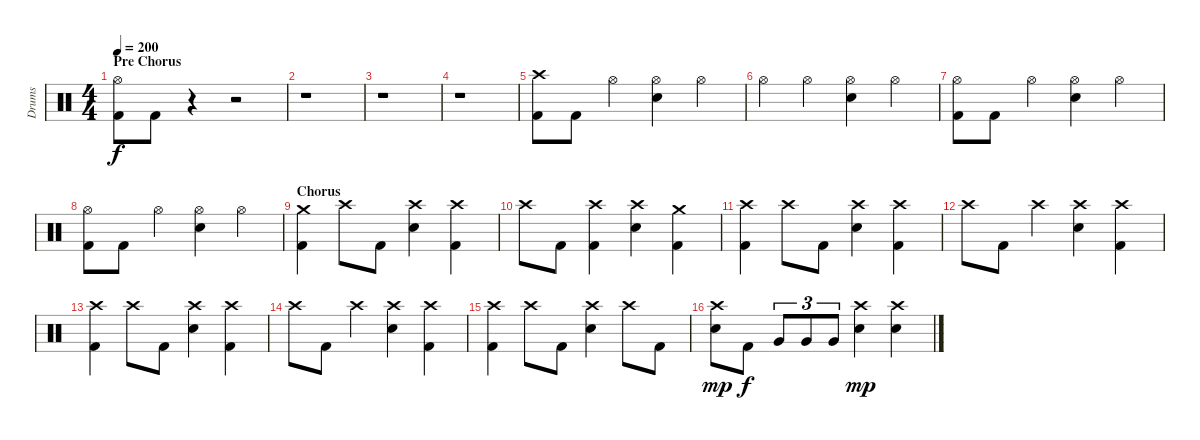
\track ("Drums" "Drums") {instrument percussion}
\staff {score}
\articulation defaults
\ts (4 4)
\section ("" "Pre Chorus")
\tempo 200
\clef neutral
\ks c
("Hi-Hat (open)" "Kick (hit) 2").8{dy f} "Kick (hit) 2".8 r.4 r.2 |
r.1 |
r.1 |
r.1 |
("Crash high (hit)" "Kick (hit) 2").8 "Kick (hit) 2".8 "Hi-Hat (open)".4 ("Hi-Hat (open)" "Electric Snare (hit)").4 "Hi-Hat (open)".4 |
"Hi-Hat (open)".4 "Hi-Hat (open)".4 ("Hi-Hat (open)" "Electric Snare (hit)").4 "Hi-Hat (open)".4 |
("Hi-Hat (open)" "Kick (hit) 2").8 "Kick (hit) 2".8 "Hi-Hat (open)".4 ("Hi-Hat (open)" "Electric Snare (hit)").4 "Hi-Hat (open)".4 |
("Hi-Hat (open)" "Kick (hit) 2").8 "Kick (hit) 2".8 "Hi-Hat (open)".4 ("Hi-Hat (open)" "Electric Snare (hit)").4 "Hi-Hat (open)".4 |
\section ("" "Chorus")
("Crash medium (hit)" "Kick (hit) 2").4 "Crash high (hit)".8 "Kick (hit) 2".8 ("Crash high (hit)" "Electric Snare (hit)").4 ("Crash high (hit)" "Kick (hit) 2").4 |
"Crash high (hit)".8 "Kick (hit) 2".8 ("Crash high (hit)" "Kick (hit) 2").4 ("Crash high (hit)" "Electric Snare (hit)").4 ("Crash medium (hit)" "Kick (hit) 2").4 |
("Crash high (hit)" "Kick (hit) 2").4 "Crash high (hit)".8 "Kick (hit) 2".8 ("Crash high (hit)" "Electric Snare (hit)").4 ("Crash high (hit)" "Kick (hit) 2").4 |
"Crash high (hit)".8 "Kick (hit) 2".8 "Crash high (hit)".4 ("Crash high (hit)" "Electric Snare (hit)").4 ("Crash high (hit)" "Kick (hit) 2").4 |
("Crash high (hit)" "Kick (hit) 2").4 "Crash high (hit)".8 "Kick (hit) 2".8 ("Crash high (hit)" "Electric Snare (hit)").4 ("Crash high (hit)" "Kick (hit) 2").4 |
"Crash high (hit)".8 "Kick (hit) 2".8 "Crash high (hit)".4 ("Crash high (hit)" "Electric Snare (hit)").4 ("Crash high (hit)" "Kick (hit) 2").4 |
("Crash high (hit)" "Kick (hit) 2").4 "Crash high (hit)".8 "Kick (hit) 2".8 ("Crash high (hit)" "Electric Snare (hit)").4 "Crash high (hit)".8 "Kick (hit) 2".8 |
("Crash high (hit)" "Electric Snare (hit)").8{dy mp} "Kick (hit) 2".8{dy f} "Very Low Tom (hit)".8{tu (3 2)} "Very Low Tom (hit)".8{tu (3 2)} "Very Low Tom (hit)".8{tu (3 2)} ("Crash high (hit)" "Electric Snare (hit)").4{dy mp} ("Crash high (hit)" "Electric Snare (hit)").4
